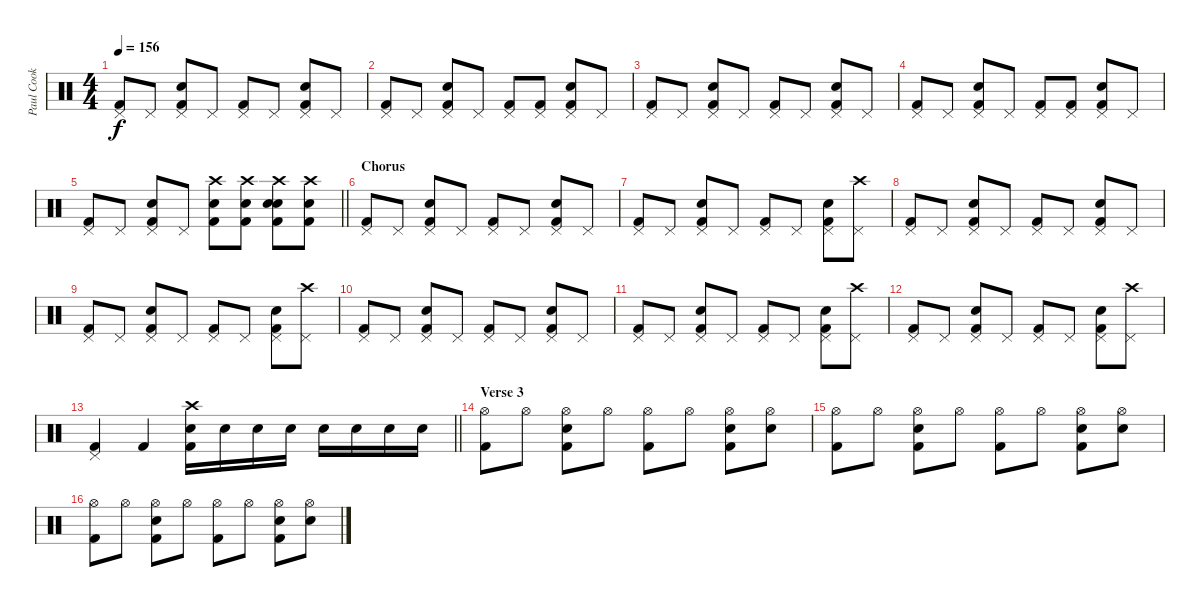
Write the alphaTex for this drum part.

\track ("Paul Cook" "Paul Cook") {instrument percussion}
\staff {score}
\articulation defaults
\ts (4 4)
\tempo 156
\clef neutral
\ks c
("Pedal Hi-Hat (hit)" "Kick (hit) 2").8{dy f} "Pedal Hi-Hat (hit)".8 ("Pedal Hi-Hat (hit)" "Kick (hit) 2" "Snare (hit) 2").8 "Pedal Hi-Hat (hit)".8 ("Pedal Hi-Hat (hit)" "Kick (hit) 2").8 "Pedal Hi-Hat (hit)".8 ("Pedal Hi-Hat (hit)" "Kick (hit) 2" "Snare (hit) 2").8 "Pedal Hi-Hat (hit)".8 |
("Pedal Hi-Hat (hit)" "Kick (hit) 2").8 "Pedal Hi-Hat (hit)".8 ("Pedal Hi-Hat (hit)" "Kick (hit) 2" "Snare (hit) 2").8 "Pedal Hi-Hat (hit)".8 ("Pedal Hi-Hat (hit)" "Kick (hit) 2").8 ("Pedal Hi-Hat (hit)" "Kick (hit) 2").8 ("Pedal Hi-Hat (hit)" "Kick (hit) 2" "Snare (hit) 2").8 "Pedal Hi-Hat (hit)".8 |
("Pedal Hi-Hat (hit)" "Kick (hit) 2").8 "Pedal Hi-Hat (hit)".8 ("Pedal Hi-Hat (hit)" "Kick (hit) 2" "Snare (hit) 2").8 "Pedal Hi-Hat (hit)".8 ("Pedal Hi-Hat (hit)" "Kick (hit) 2").8 "Pedal Hi-Hat (hit)".8 ("Pedal Hi-Hat (hit)" "Kick (hit) 2" "Snare (hit) 2").8 "Pedal Hi-Hat (hit)".8 |
("Pedal Hi-Hat (hit)" "Kick (hit) 2").8 "Pedal Hi-Hat (hit)".8 ("Pedal Hi-Hat (hit)" "Kick (hit) 2" "Snare (hit) 2").8 "Pedal Hi-Hat (hit)".8 ("Pedal Hi-Hat (hit)" "Kick (hit) 2").8 ("Pedal Hi-Hat (hit)" "Kick (hit) 2").8 ("Pedal Hi-Hat (hit)" "Kick (hit) 2" "Snare (hit) 2").8 "Pedal Hi-Hat (hit)".8 |
\barLineRight lightlight
("Pedal Hi-Hat (hit)" "Kick (hit) 2").8 "Pedal Hi-Hat (hit)".8 ("Pedal Hi-Hat (hit)" "Kick (hit) 2" "Snare (hit) 2").8 "Pedal Hi-Hat (hit)".8 ("Kick (hit) 2" "Crash high (hit)" "Snare (hit) 2").8 ("Kick (hit) 2" "Crash high (hit)" "Snare (hit) 2").8 ("Kick (hit) 2" "Snare (hit) 2" "Crash high (hit)" "Snare (hit) 2").8 ("Kick (hit) 2" "Crash high (hit)" "Snare (hit) 2").8 |
\section ("" "Chorus")
("Pedal Hi-Hat (hit)" "Kick (hit) 2").8 "Pedal Hi-Hat (hit)".8 ("Pedal Hi-Hat (hit)" "Kick (hit) 2" "Snare (hit) 2").8 "Pedal Hi-Hat (hit)".8 ("Pedal Hi-Hat (hit)" "Kick (hit) 2").8 "Pedal Hi-Hat (hit)".8 ("Pedal Hi-Hat (hit)" "Kick (hit) 2" "Snare (hit) 2").8 "Pedal Hi-Hat (hit)".8 |
("Pedal Hi-Hat (hit)" "Kick (hit) 2").8 "Pedal Hi-Hat (hit)".8 ("Pedal Hi-Hat (hit)" "Kick (hit) 2" "Snare (hit) 2").8 "Pedal Hi-Hat (hit)".8 ("Pedal Hi-Hat (hit)" "Kick (hit) 2").8 "Pedal Hi-Hat (hit)".8 ("Pedal Hi-Hat (hit)" "Kick (hit) 2" "Snare (hit) 2").8 ("Pedal Hi-Hat (hit)" "Crash high (hit)").8 |
("Pedal Hi-Hat (hit)" "Kick (hit) 2").8 "Pedal Hi-Hat (hit)".8 ("Pedal Hi-Hat (hit)" "Kick (hit) 2" "Snare (hit) 2").8 "Pedal Hi-Hat (hit)".8 ("Pedal Hi-Hat (hit)" "Kick (hit) 2").8 "Pedal Hi-Hat (hit)".8 ("Pedal Hi-Hat (hit)" "Kick (hit) 2" "Snare (hit) 2").8 "Pedal Hi-Hat (hit)".8 |
("Pedal Hi-Hat (hit)" "Kick (hit) 2").8 "Pedal Hi-Hat (hit)".8 ("Pedal Hi-Hat (hit)" "Kick (hit) 2" "Snare (hit) 2").8 "Pedal Hi-Hat (hit)".8 ("Pedal Hi-Hat (hit)" "Kick (hit) 2").8 "Pedal Hi-Hat (hit)".8 ("Pedal Hi-Hat (hit)" "Kick (hit) 2" "Snare (hit) 2").8 ("Pedal Hi-Hat (hit)" "Crash high (hit)").8 |
("Pedal Hi-Hat (hit)" "Kick (hit) 2").8 "Pedal Hi-Hat (hit)".8 ("Pedal Hi-Hat (hit)" "Kick (hit) 2" "Snare (hit) 2").8 "Pedal Hi-Hat (hit)".8 ("Pedal Hi-Hat (hit)" "Kick (hit) 2").8 "Pedal Hi-Hat (hit)".8 ("Pedal Hi-Hat (hit)" "Kick (hit) 2" "Snare (hit) 2").8 "Pedal Hi-Hat (hit)".8 |
("Pedal Hi-Hat (hit)" "Kick (hit) 2").8 "Pedal Hi-Hat (hit)".8 ("Pedal Hi-Hat (hit)" "Kick (hit) 2" "Snare (hit) 2").8 "Pedal Hi-Hat (hit)".8 ("Pedal Hi-Hat (hit)" "Kick (hit) 2").8 "Pedal Hi-Hat (hit)".8 ("Pedal Hi-Hat (hit)" "Kick (hit) 2" "Snare (hit) 2").8 ("Pedal Hi-Hat (hit)" "Crash high (hit)").8 |
("Pedal Hi-Hat (hit)" "Kick (hit) 2").8 "Pedal Hi-Hat (hit)".8 ("Pedal Hi-Hat (hit)" "Kick (hit) 2" "Snare (hit) 2").8 "Pedal Hi-Hat (hit)".8 ("Pedal Hi-Hat (hit)" "Kick (hit) 2").8 "Pedal Hi-Hat (hit)".8 ("Pedal Hi-Hat (hit)" "Kick (hit) 2" "Snare (hit) 2").8 ("Pedal Hi-Hat (hit)" "Crash high (hit)").8 |
\barLineRight lightlight
("Kick (hit) 2" "Pedal Hi-Hat (hit)").4 "Kick (hit) 2".4 ("Kick (hit) 2" "Crash high (hit)" "Snare (hit) 2").16 "Snare (hit) 2".16 "Snare (hit) 2".16 "Snare (hit) 2".16 "Electric Snare (hit)".16 "Electric Snare (hit)".16 "Electric Snare (hit)".16 "Electric Snare (hit)".16 |
\section ("" "Verse 3")
("Hi-Hat (open)" "Kick (hit) 2").8 "Hi-Hat (open)".8 ("Hi-Hat (open)" "Kick (hit) 2" "Snare (hit) 2").8 "Hi-Hat (open)".8 ("Hi-Hat (open)" "Kick (hit) 2").8 "Hi-Hat (open)".8 ("Hi-Hat (open)" "Kick (hit) 2" "Snare (hit) 2").8 ("Hi-Hat (open)" "Snare (hit) 2").8 |
("Hi-Hat (open)" "Kick (hit) 2").8 "Hi-Hat (open)".8 ("Hi-Hat (open)" "Kick (hit) 2" "Snare (hit) 2").8 "Hi-Hat (open)".8 ("Hi-Hat (open)" "Kick (hit) 2").8 "Hi-Hat (open)".8 ("Hi-Hat (open)" "Kick (hit) 2" "Snare (hit) 2").8 ("Hi-Hat (open)" "Snare (hit) 2").8 |
("Hi-Hat (open)" "Kick (hit) 2").8 "Hi-Hat (open)".8 ("Hi-Hat (open)" "Kick (hit) 2" "Snare (hit) 2").8 "Hi-Hat (open)".8 ("Hi-Hat (open)" "Kick (hit) 2").8 "Hi-Hat (open)".8 ("Hi-Hat (open)" "Kick (hit) 2" "Snare (hit) 2").8 ("Hi-Hat (open)" "Snare (hit) 2").8
